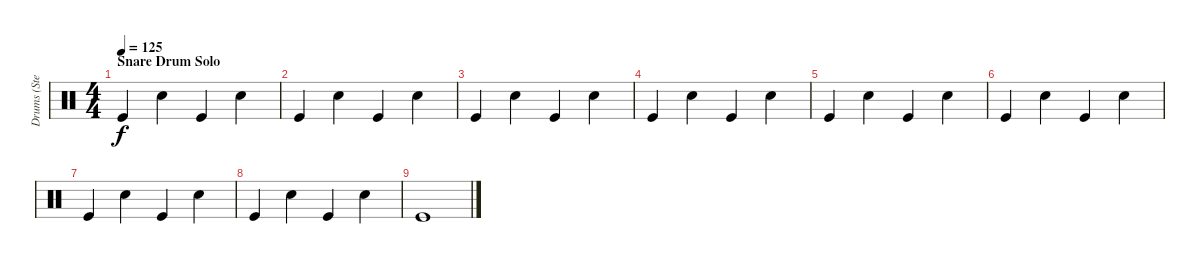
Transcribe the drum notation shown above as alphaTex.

\track ("Drums (Steve)" "Drums (Ste") {instrument percussion}
\staff {score}
\articulation defaults
\ts (4 4)
\section ("" "Snare Drum Solo")
\tempo 125
\clef neutral
\ks c "Kick (hit)".4{dy f} "Electric Snare (hit)".4 "Kick (hit)".4 "Electric Snare (hit)".4
|
"Kick (hit)".4 "Electric Snare (hit)".4 "Kick (hit)".4 "Electric Snare (hit)".4 |
"Kick (hit)".4 "Electric Snare (hit)".4 "Kick (hit)".4 "Electric Snare (hit)".4 |
"Kick (hit)".4 "Electric Snare (hit)".4 "Kick (hit)".4 "Electric Snare (hit)".4 |
"Kick (hit)".4 "Electric Snare (hit)".4 "Kick (hit)".4 "Electric Snare (hit)".4 |
"Kick (hit)".4 "Electric Snare (hit)".4 "Kick (hit)".4 "Electric Snare (hit)".4 |
"Kick (hit)".4 "Electric Snare (hit)".4 "Kick (hit)".4 "Electric Snare (hit)".4 |
"Kick (hit)".4 "Electric Snare (hit)".4 "Kick (hit)".4 "Electric Snare (hit)".4 |
"Kick (hit)".1
